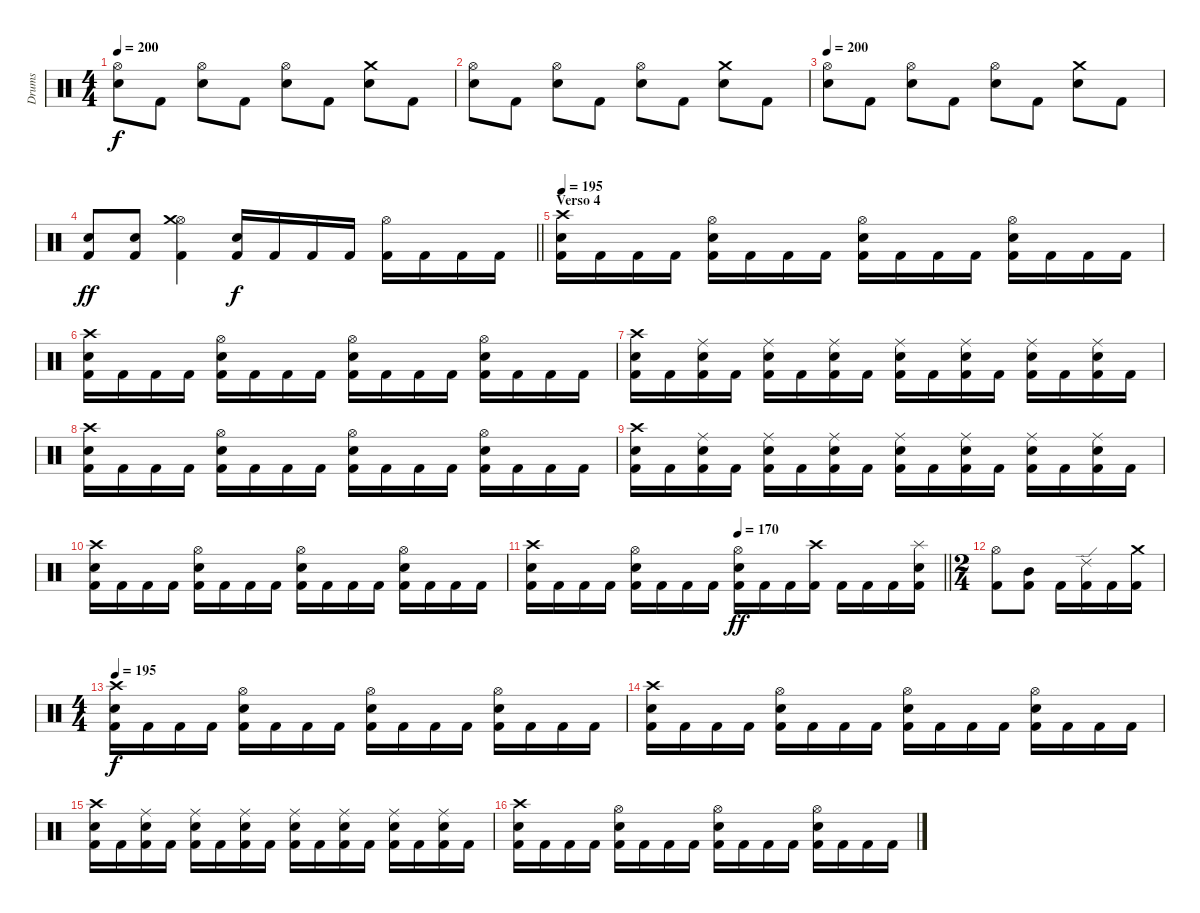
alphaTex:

\track ("Drums" "Drums") {instrument percussion}
\staff {score}
\articulation defaults
\ts (4 4)
\tempo 200
\clef neutral
\ks c
("Hi-Hat (open)" "Electric Snare (hit)").8{dy f} "Kick (hit) 2".8 ("Hi-Hat (open)" "Electric Snare (hit)").8 "Kick (hit) 2".8 ("Hi-Hat (open)" "Electric Snare (hit)").8 "Kick (hit) 2".8 ("Crash medium (hit)" "Electric Snare (hit)").8 "Kick (hit) 2".8 |
("Hi-Hat (open)" "Electric Snare (hit)").8 "Kick (hit) 2".8 ("Hi-Hat (open)" "Electric Snare (hit)").8 "Kick (hit) 2".8 ("Hi-Hat (open)" "Electric Snare (hit)").8 "Kick (hit) 2".8 ("Crash medium (hit)" "Electric Snare (hit)").8 "Kick (hit) 2".8 |
\tempo 200
("Hi-Hat (open)" "Electric Snare (hit)").8 "Kick (hit) 2".8 ("Hi-Hat (open)" "Electric Snare (hit)").8 "Kick (hit) 2".8 ("Hi-Hat (open)" "Electric Snare (hit)").8 "Kick (hit) 2".8 ("Crash medium (hit)" "Electric Snare (hit)").8 "Kick (hit) 2".8 |
\barLineRight lightlight
("Electric Snare (hit)" "Kick (hit) 2").8{dy ff} ("Electric Snare (hit)" "Kick (hit) 2").8 ("Kick (hit) 2" "Hi-Hat (open)" "Crash medium (hit)").4 ("Kick (hit) 2" "Electric Snare (hit)").16{dy f} "Kick (hit) 2".16 "Kick (hit) 2".16 "Kick (hit) 2".16 ("Kick (hit) 2" "Hi-Hat (open)").16 "Kick (hit) 2".16 "Kick (hit) 2".16 "Kick (hit) 2".16 |
\section ("" "Verso 4")
\tempo 195
("Kick (hit) 2" "Crash high (hit)" "Electric Snare (hit)").16 "Kick (hit) 2".16 "Kick (hit) 2".16 "Kick (hit) 2".16 ("Kick (hit) 2" "Electric Snare (hit)" "Hi-Hat (open)").16 "Kick (hit) 2".16 "Kick (hit) 2".16 "Kick (hit) 2".16 ("Kick (hit) 2" "Electric Snare (hit)" "Hi-Hat (open)").16 "Kick (hit) 2".16 "Kick (hit) 2".16 "Kick (hit) 2".16 ("Kick (hit) 2" "Electric Snare (hit)" "Hi-Hat (open)").16 "Kick (hit) 2".16 "Kick (hit) 2".16 "Kick (hit) 2".16 |
("Kick (hit) 2" "Crash high (hit)" "Electric Snare (hit)").16 "Kick (hit) 2".16 "Kick (hit) 2".16 "Kick (hit) 2".16 ("Kick (hit) 2" "Electric Snare (hit)" "Hi-Hat (open)").16 "Kick (hit) 2".16 "Kick (hit) 2".16 "Kick (hit) 2".16 ("Kick (hit) 2" "Electric Snare (hit)" "Hi-Hat (open)").16 "Kick (hit) 2".16 "Kick (hit) 2".16 "Kick (hit) 2".16 ("Kick (hit) 2" "Electric Snare (hit)" "Hi-Hat (open)").16 "Kick (hit) 2".16 "Kick (hit) 2".16 "Kick (hit) 2".16 |
("Kick (hit) 2" "Electric Snare (hit)" "Crash high (hit)").16 "Kick (hit) 2".16 ("Kick (hit) 2" "Electric Snare (hit)" "Ride (middle)").16 "Kick (hit) 2".16 ("Kick (hit) 2" "Electric Snare (hit)" "Ride (middle)").16 "Kick (hit) 2".16 ("Kick (hit) 2" "Electric Snare (hit)" "Ride (middle)").16 "Kick (hit) 2".16 ("Kick (hit) 2" "Electric Snare (hit)" "Ride (middle)").16 "Kick (hit) 2".16 ("Kick (hit) 2" "Electric Snare (hit)" "Ride (middle)").16 "Kick (hit) 2".16 ("Kick (hit) 2" "Electric Snare (hit)" "Ride (middle)").16 "Kick (hit) 2".16 ("Kick (hit) 2" "Electric Snare (hit)" "Ride (middle)").16 "Kick (hit) 2".16 |
("Kick (hit) 2" "Crash high (hit)" "Electric Snare (hit)").16 "Kick (hit) 2".16 "Kick (hit) 2".16 "Kick (hit) 2".16 ("Kick (hit) 2" "Electric Snare (hit)" "Hi-Hat (open)").16 "Kick (hit) 2".16 "Kick (hit) 2".16 "Kick (hit) 2".16 ("Kick (hit) 2" "Electric Snare (hit)" "Hi-Hat (open)").16 "Kick (hit) 2".16 "Kick (hit) 2".16 "Kick (hit) 2".16 ("Kick (hit) 2" "Electric Snare (hit)" "Hi-Hat (open)").16 "Kick (hit) 2".16 "Kick (hit) 2".16 "Kick (hit) 2".16 |
("Kick (hit) 2" "Electric Snare (hit)" "Crash high (hit)").16 "Kick (hit) 2".16 ("Kick (hit) 2" "Electric Snare (hit)" "Ride (middle)").16 "Kick (hit) 2".16 ("Kick (hit) 2" "Electric Snare (hit)" "Ride (middle)").16 "Kick (hit) 2".16 ("Kick (hit) 2" "Electric Snare (hit)" "Ride (middle)").16 "Kick (hit) 2".16 ("Kick (hit) 2" "Electric Snare (hit)" "Ride (middle)").16 "Kick (hit) 2".16 ("Kick (hit) 2" "Electric Snare (hit)" "Ride (middle)").16 "Kick (hit) 2".16 ("Kick (hit) 2" "Electric Snare (hit)" "Ride (middle)").16 "Kick (hit) 2".16 ("Kick (hit) 2" "Electric Snare (hit)" "Ride (middle)").16 "Kick (hit) 2".16 |
("Kick (hit) 2" "Crash high (hit)" "Electric Snare (hit)").16 "Kick (hit) 2".16 "Kick (hit) 2".16 "Kick (hit) 2".16 ("Kick (hit) 2" "Electric Snare (hit)" "Hi-Hat (open)").16 "Kick (hit) 2".16 "Kick (hit) 2".16 "Kick (hit) 2".16 ("Kick (hit) 2" "Electric Snare (hit)" "Hi-Hat (open)").16 "Kick (hit) 2".16 "Kick (hit) 2".16 "Kick (hit) 2".16 ("Kick (hit) 2" "Electric Snare (hit)" "Hi-Hat (open)").16 "Kick (hit) 2".16 "Kick (hit) 2".16 "Kick (hit) 2".16 |
\tempo (170 0.5)
\barLineRight lightlight
("Kick (hit) 2" "Crash high (hit)" "Electric Snare (hit)").16 "Kick (hit) 2".16 "Kick (hit) 2".16 "Kick (hit) 2".16 ("Kick (hit) 2" "Electric Snare (hit)" "Hi-Hat (open)").16 "Kick (hit) 2".16 "Kick (hit) 2".16 "Kick (hit) 2".16 ("Kick (hit) 2" "Electric Snare (hit)" "Hi-Hat (open)").16{dy ff} "Kick (hit) 2".16 "Kick (hit) 2".16 ("Kick (hit) 2" "Crash high (hit)").16 "Kick (hit) 2".16 "Kick (hit) 2".16 "Kick (hit) 2".16 ("Kick (hit) 2" "Electric Snare (hit)" "Splash (hit)").16 |
\ts (2 4)
("Kick (hit) 2" "Hi-Hat (open)").8 ("Kick (hit) 2" "Mid Tom (hit)").8 "Kick (hit) 2".16 ("Kick (hit) 2" "Ride (edge) 2").16 "Kick (hit) 2".16 ("Kick (hit) 2" "Crash medium (hit)").16 |
\ts (4 4)
\tempo 195
("Kick (hit) 2" "Crash high (hit)" "Electric Snare (hit)").16{dy f} "Kick (hit) 2".16 "Kick (hit) 2".16 "Kick (hit) 2".16 ("Kick (hit) 2" "Electric Snare (hit)" "Hi-Hat (open)").16 "Kick (hit) 2".16 "Kick (hit) 2".16 "Kick (hit) 2".16 ("Kick (hit) 2" "Electric Snare (hit)" "Hi-Hat (open)").16 "Kick (hit) 2".16 "Kick (hit) 2".16 "Kick (hit) 2".16 ("Kick (hit) 2" "Electric Snare (hit)" "Hi-Hat (open)").16 "Kick (hit) 2".16 "Kick (hit) 2".16 "Kick (hit) 2".16 |
("Kick (hit) 2" "Crash high (hit)" "Electric Snare (hit)").16 "Kick (hit) 2".16 "Kick (hit) 2".16 "Kick (hit) 2".16 ("Kick (hit) 2" "Electric Snare (hit)" "Hi-Hat (open)").16 "Kick (hit) 2".16 "Kick (hit) 2".16 "Kick (hit) 2".16 ("Kick (hit) 2" "Electric Snare (hit)" "Hi-Hat (open)").16 "Kick (hit) 2".16 "Kick (hit) 2".16 "Kick (hit) 2".16 ("Kick (hit) 2" "Electric Snare (hit)" "Hi-Hat (open)").16 "Kick (hit) 2".16 "Kick (hit) 2".16 "Kick (hit) 2".16 |
("Kick (hit) 2" "Electric Snare (hit)" "Crash high (hit)").16 "Kick (hit) 2".16 ("Kick (hit) 2" "Electric Snare (hit)" "Ride (middle)").16 "Kick (hit) 2".16 ("Kick (hit) 2" "Electric Snare (hit)" "Ride (middle)").16 "Kick (hit) 2".16 ("Kick (hit) 2" "Electric Snare (hit)" "Ride (middle)").16 "Kick (hit) 2".16 ("Kick (hit) 2" "Electric Snare (hit)" "Ride (middle)").16 "Kick (hit) 2".16 ("Kick (hit) 2" "Electric Snare (hit)" "Ride (middle)").16 "Kick (hit) 2".16 ("Kick (hit) 2" "Electric Snare (hit)" "Ride (middle)").16 "Kick (hit) 2".16 ("Kick (hit) 2" "Electric Snare (hit)" "Ride (middle)").16 "Kick (hit) 2".16 |
("Kick (hit) 2" "Crash high (hit)" "Electric Snare (hit)").16 "Kick (hit) 2".16 "Kick (hit) 2".16 "Kick (hit) 2".16 ("Kick (hit) 2" "Electric Snare (hit)" "Hi-Hat (open)").16 "Kick (hit) 2".16 "Kick (hit) 2".16 "Kick (hit) 2".16 ("Kick (hit) 2" "Electric Snare (hit)" "Hi-Hat (open)").16 "Kick (hit) 2".16 "Kick (hit) 2".16 "Kick (hit) 2".16 ("Kick (hit) 2" "Electric Snare (hit)" "Hi-Hat (open)").16 "Kick (hit) 2".16 "Kick (hit) 2".16 "Kick (hit) 2".16
